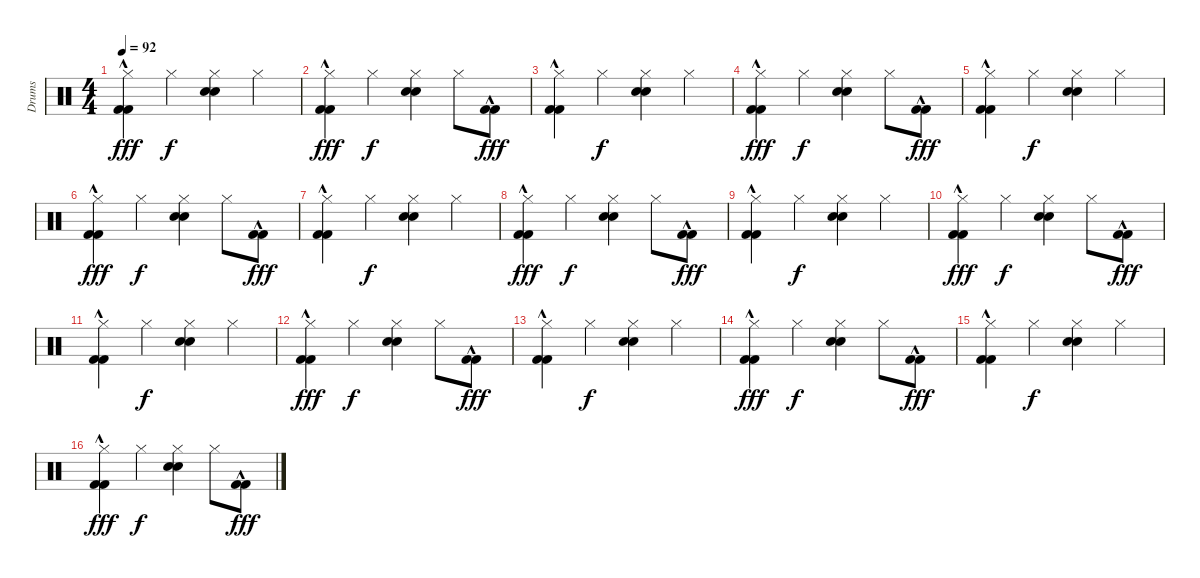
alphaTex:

\track ("Drums" "Drums") {instrument percussion}
\staff {score}
\articulation defaults
\ts (4 4)
\tempo 92
\clef neutral
\ks c
("Hi-Hat (closed)" "Kick (hit) 2"{hac} "Kick (hit) 2"{hac}).4{dy fff} "Hi-Hat (closed)".4{dy f} ("Hi-Hat (closed)" "Snare (hit) 2" "Electric Snare (hit)").4 "Hi-Hat (closed)".4 |
("Hi-Hat (closed)" "Kick (hit) 2"{hac} "Kick (hit) 2"{hac}).4{dy fff} "Hi-Hat (closed)".4{dy f} ("Hi-Hat (closed)" "Snare (hit) 2" "Electric Snare (hit)").4 "Hi-Hat (closed)".8 ("Kick (hit) 2"{hac} "Kick (hit) 2"{hac}).8{dy fff} |
("Hi-Hat (closed)" "Kick (hit) 2"{hac} "Kick (hit) 2"{hac}).4 "Hi-Hat (closed)".4{dy f} ("Hi-Hat (closed)" "Snare (hit) 2" "Electric Snare (hit)").4 "Hi-Hat (closed)".4 |
("Hi-Hat (closed)" "Kick (hit) 2"{hac} "Kick (hit) 2"{hac}).4{dy fff} "Hi-Hat (closed)".4{dy f} ("Hi-Hat (closed)" "Snare (hit) 2" "Electric Snare (hit)").4 "Hi-Hat (closed)".8 ("Kick (hit) 2"{hac} "Kick (hit) 2"{hac}).8{dy fff} |
("Hi-Hat (closed)" "Kick (hit) 2"{hac} "Kick (hit) 2"{hac}).4 "Hi-Hat (closed)".4{dy f} ("Hi-Hat (closed)" "Snare (hit) 2" "Electric Snare (hit)").4 "Hi-Hat (closed)".4 |
("Hi-Hat (closed)" "Kick (hit) 2"{hac} "Kick (hit) 2"{hac}).4{dy fff} "Hi-Hat (closed)".4{dy f} ("Hi-Hat (closed)" "Snare (hit) 2" "Electric Snare (hit)").4 "Hi-Hat (closed)".8 ("Kick (hit) 2"{hac} "Kick (hit) 2"{hac}).8{dy fff} |
("Hi-Hat (closed)" "Kick (hit) 2"{hac} "Kick (hit) 2"{hac}).4 "Hi-Hat (closed)".4{dy f} ("Hi-Hat (closed)" "Snare (hit) 2" "Electric Snare (hit)").4 "Hi-Hat (closed)".4 |
("Hi-Hat (closed)" "Kick (hit) 2"{hac} "Kick (hit) 2"{hac}).4{dy fff} "Hi-Hat (closed)".4{dy f} ("Hi-Hat (closed)" "Snare (hit) 2" "Electric Snare (hit)").4 "Hi-Hat (closed)".8 ("Kick (hit) 2"{hac} "Kick (hit) 2"{hac}).8{dy fff} |
("Hi-Hat (closed)" "Kick (hit) 2"{hac} "Kick (hit) 2"{hac}).4 "Hi-Hat (closed)".4{dy f} ("Hi-Hat (closed)" "Snare (hit) 2" "Electric Snare (hit)").4 "Hi-Hat (closed)".4 |
("Hi-Hat (closed)" "Kick (hit) 2"{hac} "Kick (hit) 2"{hac}).4{dy fff} "Hi-Hat (closed)".4{dy f} ("Hi-Hat (closed)" "Snare (hit) 2" "Electric Snare (hit)").4 "Hi-Hat (closed)".8 ("Kick (hit) 2"{hac} "Kick (hit) 2"{hac}).8{dy fff} |
("Hi-Hat (closed)" "Kick (hit) 2"{hac} "Kick (hit) 2"{hac}).4 "Hi-Hat (closed)".4{dy f} ("Hi-Hat (closed)" "Snare (hit) 2" "Electric Snare (hit)").4 "Hi-Hat (closed)".4 |
("Hi-Hat (closed)" "Kick (hit) 2"{hac} "Kick (hit) 2"{hac}).4{dy fff} "Hi-Hat (closed)".4{dy f} ("Hi-Hat (closed)" "Snare (hit) 2" "Electric Snare (hit)").4 "Hi-Hat (closed)".8 ("Kick (hit) 2"{hac} "Kick (hit) 2"{hac}).8{dy fff} |
("Hi-Hat (closed)" "Kick (hit) 2"{hac} "Kick (hit) 2"{hac}).4 "Hi-Hat (closed)".4{dy f} ("Hi-Hat (closed)" "Snare (hit) 2" "Electric Snare (hit)").4 "Hi-Hat (closed)".4 |
("Hi-Hat (closed)" "Kick (hit) 2"{hac} "Kick (hit) 2"{hac}).4{dy fff} "Hi-Hat (closed)".4{dy f} ("Hi-Hat (closed)" "Snare (hit) 2" "Electric Snare (hit)").4 "Hi-Hat (closed)".8 ("Kick (hit) 2"{hac} "Kick (hit) 2"{hac}).8{dy fff} |
("Hi-Hat (closed)" "Kick (hit) 2"{hac} "Kick (hit) 2"{hac}).4 "Hi-Hat (closed)".4{dy f} ("Hi-Hat (closed)" "Snare (hit) 2" "Electric Snare (hit)").4 "Hi-Hat (closed)".4 |
("Hi-Hat (closed)" "Kick (hit) 2"{hac} "Kick (hit) 2"{hac}).4{dy fff} "Hi-Hat (closed)".4{dy f} ("Hi-Hat (closed)" "Snare (hit) 2" "Electric Snare (hit)").4 "Hi-Hat (closed)".8 ("Kick (hit) 2"{hac} "Kick (hit) 2"{hac}).8{dy fff}
